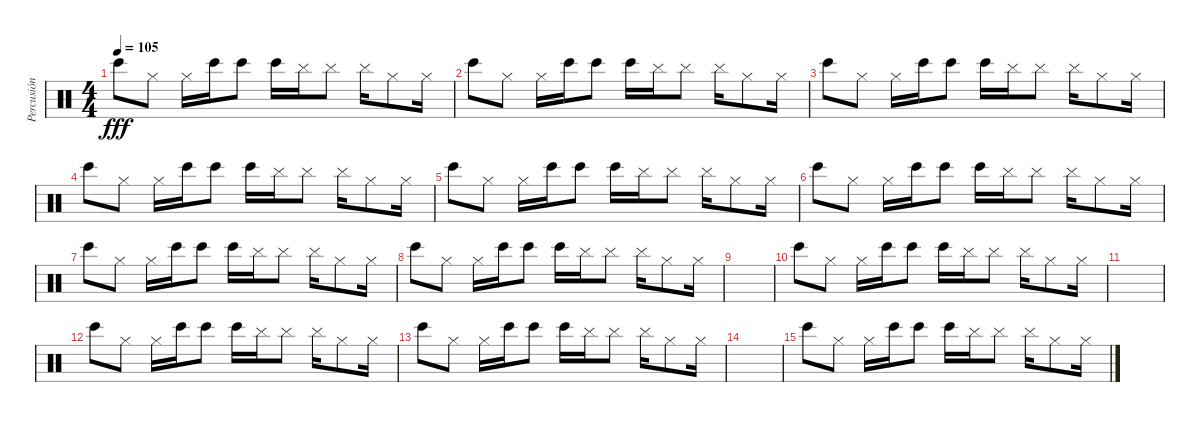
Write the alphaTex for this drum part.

\track ("Percusión" "Percusión") {instrument percussion}
\staff {score}
\articulation defaults
\ts (4 4)
\tempo 105
\clef neutral
\ks c "Bongo High (hit)".8{dy fff} "Hi-Hat (closed)".8 "Hi-Hat (closed)".16 "Bongo High (hit)".16 "Bongo High (hit)".8 "Bongo High (hit)".16 "Cymbal (hit)".16 "Cymbal (hit)".8 "Cymbal (hit)".16 "Hi-Hat (closed)".8 "Hi-Hat (closed)".16
|
"Bongo High (hit)".8 "Hi-Hat (closed)".8 "Hi-Hat (closed)".16 "Bongo High (hit)".16 "Bongo High (hit)".8 "Bongo High (hit)".16 "Cymbal (hit)".16 "Cymbal (hit)".8 "Cymbal (hit)".16 "Hi-Hat (closed)".8 "Hi-Hat (closed)".16 |
"Bongo High (hit)".8 "Hi-Hat (closed)".8 "Hi-Hat (closed)".16 "Bongo High (hit)".16 "Bongo High (hit)".8 "Bongo High (hit)".16 "Cymbal (hit)".16 "Cymbal (hit)".8 "Cymbal (hit)".16 "Hi-Hat (closed)".8 "Hi-Hat (closed)".16 |
"Bongo High (hit)".8 "Hi-Hat (closed)".8 "Hi-Hat (closed)".16 "Bongo High (hit)".16 "Bongo High (hit)".8 "Bongo High (hit)".16 "Cymbal (hit)".16 "Cymbal (hit)".8 "Cymbal (hit)".16 "Hi-Hat (closed)".8 "Hi-Hat (closed)".16 |
"Bongo High (hit)".8 "Hi-Hat (closed)".8 "Hi-Hat (closed)".16 "Bongo High (hit)".16 "Bongo High (hit)".8 "Bongo High (hit)".16 "Cymbal (hit)".16 "Cymbal (hit)".8 "Cymbal (hit)".16 "Hi-Hat (closed)".8 "Hi-Hat (closed)".16 |
"Bongo High (hit)".8 "Hi-Hat (closed)".8 "Hi-Hat (closed)".16 "Bongo High (hit)".16 "Bongo High (hit)".8 "Bongo High (hit)".16 "Cymbal (hit)".16 "Cymbal (hit)".8 "Cymbal (hit)".16 "Hi-Hat (closed)".8 "Hi-Hat (closed)".16 |
"Bongo High (hit)".8 "Hi-Hat (closed)".8 "Hi-Hat (closed)".16 "Bongo High (hit)".16 "Bongo High (hit)".8 "Bongo High (hit)".16 "Cymbal (hit)".16 "Cymbal (hit)".8 "Cymbal (hit)".16 "Hi-Hat (closed)".8 "Hi-Hat (closed)".16 |
"Bongo High (hit)".8 "Hi-Hat (closed)".8 "Hi-Hat (closed)".16 "Bongo High (hit)".16 "Bongo High (hit)".8 "Bongo High (hit)".16 "Cymbal (hit)".16 "Cymbal (hit)".8 "Cymbal (hit)".16 "Hi-Hat (closed)".8 "Hi-Hat (closed)".16 |
|
"Bongo High (hit)".8 "Hi-Hat (closed)".8 "Hi-Hat (closed)".16 "Bongo High (hit)".16 "Bongo High (hit)".8 "Bongo High (hit)".16 "Cymbal (hit)".16 "Cymbal (hit)".8 "Cymbal (hit)".16 "Hi-Hat (closed)".8 "Hi-Hat (closed)".16 |
|
"Bongo High (hit)".8 "Hi-Hat (closed)".8 "Hi-Hat (closed)".16 "Bongo High (hit)".16 "Bongo High (hit)".8 "Bongo High (hit)".16 "Cymbal (hit)".16 "Cymbal (hit)".8 "Cymbal (hit)".16 "Hi-Hat (closed)".8 "Hi-Hat (closed)".16 |
"Bongo High (hit)".8 "Hi-Hat (closed)".8 "Hi-Hat (closed)".16 "Bongo High (hit)".16 "Bongo High (hit)".8 "Bongo High (hit)".16 "Cymbal (hit)".16 "Cymbal (hit)".8 "Cymbal (hit)".16 "Hi-Hat (closed)".8 "Hi-Hat (closed)".16 |
|
"Bongo High (hit)".8 "Hi-Hat (closed)".8 "Hi-Hat (closed)".16 "Bongo High (hit)".16 "Bongo High (hit)".8 "Bongo High (hit)".16 "Cymbal (hit)".16 "Cymbal (hit)".8 "Cymbal (hit)".16 "Hi-Hat (closed)".8 "Hi-Hat (closed)".16
